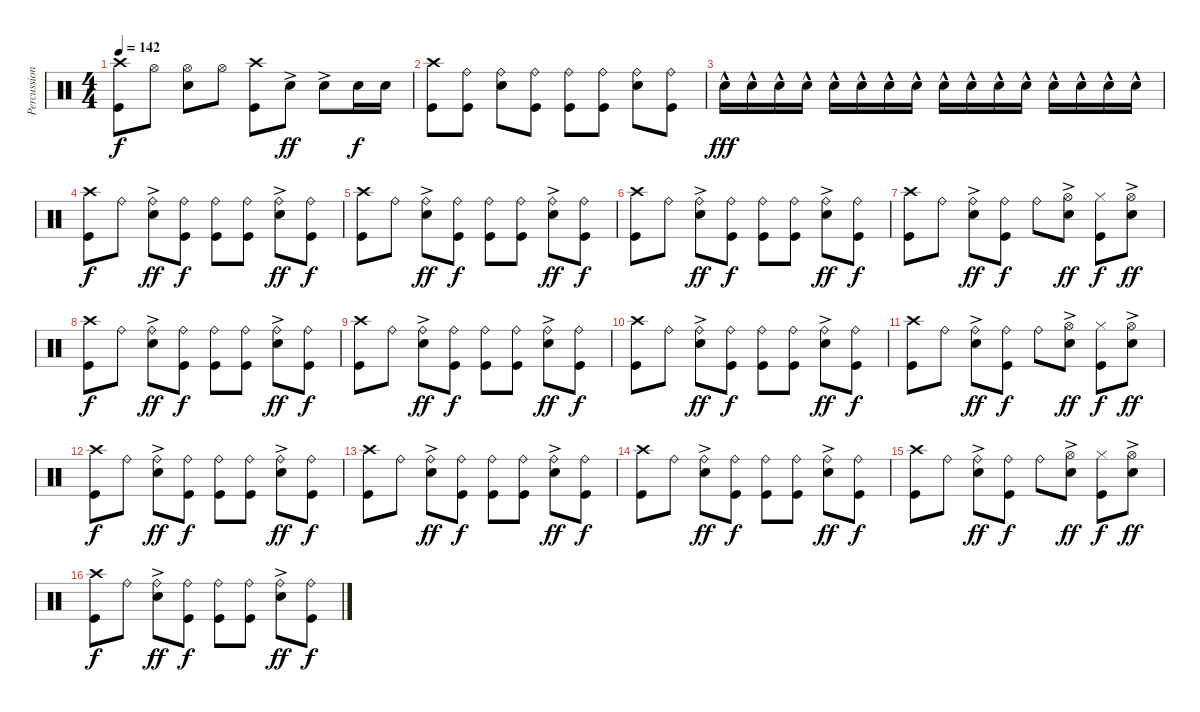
\track ("Percussion" "Percussion") {instrument percussion}
\staff {score}
\articulation defaults
\ts (4 4)
\tempo 142
\clef neutral
\ks c
("Crash high (hit)" "Kick (hit)").8{dy f} "Hi-Hat (open)".8 ("Hi-Hat (open)" "Electric Snare (hit)").8 "Hi-Hat (open)".8 ("Crash high (hit)" "Kick (hit)").8 "Electric Snare (hit)"{ac}.8{dy ff} "Electric Snare (hit)"{ac}.8 "Electric Snare (hit)".16{dy f} "Electric Snare (hit)".16 |
("Crash high (hit)" "Kick (hit)").8 ("Ride (bell)" "Kick (hit)").8 ("Ride (bell)" "Electric Snare (hit)").8 ("Ride (bell)" "Kick (hit)").8 ("Ride (bell)" "Kick (hit)").8 ("Ride (bell)" "Kick (hit)").8 ("Ride (bell)" "Electric Snare (hit)").8 ("Ride (bell)" "Kick (hit)").8 |
"Electric Snare (hit)"{hac}.16{dy fff} "Electric Snare (hit)"{hac}.16 "Electric Snare (hit)"{hac}.16 "Electric Snare (hit)"{hac}.16 "Electric Snare (hit)"{hac}.16 "Electric Snare (hit)"{hac}.16 "Electric Snare (hit)"{hac}.16 "Electric Snare (hit)"{hac}.16 "Electric Snare (hit)"{hac}.16 "Electric Snare (hit)"{hac}.16 "Electric Snare (hit)"{hac}.16 "Electric Snare (hit)"{hac}.16 "Electric Snare (hit)"{hac}.16 "Electric Snare (hit)"{hac}.16 "Electric Snare (hit)"{hac}.16 "Electric Snare (hit)"{hac}.16 |
("Crash high (hit)" "Kick (hit)").8{dy f} "Ride (bell)".8 ("Ride (bell)" "Electric Snare (hit)"{ac}).8{dy ff} ("Ride (bell)" "Kick (hit)").8{dy f} ("Ride (bell)" "Kick (hit)").8 ("Ride (bell)" "Kick (hit)").8 ("Ride (bell)" "Electric Snare (hit)"{ac}).8{dy ff} ("Ride (bell)" "Kick (hit)").8{dy f} |
("Crash high (hit)" "Kick (hit)").8 "Ride (bell)".8 ("Ride (bell)" "Electric Snare (hit)"{ac}).8{dy ff} ("Ride (bell)" "Kick (hit)").8{dy f} ("Ride (bell)" "Kick (hit)").8 ("Ride (bell)" "Kick (hit)").8 ("Ride (bell)" "Electric Snare (hit)"{ac}).8{dy ff} ("Ride (bell)" "Kick (hit)").8{dy f} |
("Crash high (hit)" "Kick (hit)").8 "Ride (bell)".8 ("Ride (bell)" "Electric Snare (hit)"{ac}).8{dy ff} ("Ride (bell)" "Kick (hit)").8{dy f} ("Ride (bell)" "Kick (hit)").8 ("Ride (bell)" "Kick (hit)").8 ("Ride (bell)" "Electric Snare (hit)"{ac}).8{dy ff} ("Ride (bell)" "Kick (hit)").8{dy f} |
("Crash high (hit)" "Kick (hit)").8 "Ride (bell)".8 ("Ride (bell)" "Electric Snare (hit)"{ac}).8{dy ff} ("Ride (bell)" "Kick (hit)").8{dy f} "Ride (bell)".8 ("Hi-Hat (open)" "Electric Snare (hit)"{ac}).8{dy ff} ("Hi-Hat (closed)" "Kick (hit)").8{dy f} ("Hi-Hat (open)" "Electric Snare (hit)"{ac}).8{dy ff} |
("Crash high (hit)" "Kick (hit)").8{dy f} "Ride (bell)".8 ("Ride (bell)" "Electric Snare (hit)"{ac}).8{dy ff} ("Ride (bell)" "Kick (hit)").8{dy f} ("Ride (bell)" "Kick (hit)").8 ("Ride (bell)" "Kick (hit)").8 ("Ride (bell)" "Electric Snare (hit)"{ac}).8{dy ff} ("Ride (bell)" "Kick (hit)").8{dy f} |
("Crash high (hit)" "Kick (hit)").8 "Ride (bell)".8 ("Ride (bell)" "Electric Snare (hit)"{ac}).8{dy ff} ("Ride (bell)" "Kick (hit)").8{dy f} ("Ride (bell)" "Kick (hit)").8 ("Ride (bell)" "Kick (hit)").8 ("Ride (bell)" "Electric Snare (hit)"{ac}).8{dy ff} ("Ride (bell)" "Kick (hit)").8{dy f} |
("Crash high (hit)" "Kick (hit)").8 "Ride (bell)".8 ("Ride (bell)" "Electric Snare (hit)"{ac}).8{dy ff} ("Ride (bell)" "Kick (hit)").8{dy f} ("Ride (bell)" "Kick (hit)").8 ("Ride (bell)" "Kick (hit)").8 ("Ride (bell)" "Electric Snare (hit)"{ac}).8{dy ff} ("Ride (bell)" "Kick (hit)").8{dy f} |
("Crash high (hit)" "Kick (hit)").8 "Ride (bell)".8 ("Ride (bell)" "Electric Snare (hit)"{ac}).8{dy ff} ("Ride (bell)" "Kick (hit)").8{dy f} "Ride (bell)".8 ("Hi-Hat (open)" "Electric Snare (hit)"{ac}).8{dy ff} ("Hi-Hat (closed)" "Kick (hit)").8{dy f} ("Hi-Hat (open)" "Electric Snare (hit)"{ac}).8{dy ff} |
("Crash high (hit)" "Kick (hit)").8{dy f} "Ride (bell)".8 ("Ride (bell)" "Electric Snare (hit)"{ac}).8{dy ff} ("Ride (bell)" "Kick (hit)").8{dy f} ("Ride (bell)" "Kick (hit)").8 ("Ride (bell)" "Kick (hit)").8 ("Ride (bell)" "Electric Snare (hit)"{ac}).8{dy ff} ("Ride (bell)" "Kick (hit)").8{dy f} |
("Crash high (hit)" "Kick (hit)").8 "Ride (bell)".8 ("Ride (bell)" "Electric Snare (hit)"{ac}).8{dy ff} ("Ride (bell)" "Kick (hit)").8{dy f} ("Ride (bell)" "Kick (hit)").8 ("Ride (bell)" "Kick (hit)").8 ("Ride (bell)" "Electric Snare (hit)"{ac}).8{dy ff} ("Ride (bell)" "Kick (hit)").8{dy f} |
("Crash high (hit)" "Kick (hit)").8 "Ride (bell)".8 ("Ride (bell)" "Electric Snare (hit)"{ac}).8{dy ff} ("Ride (bell)" "Kick (hit)").8{dy f} ("Ride (bell)" "Kick (hit)").8 ("Ride (bell)" "Kick (hit)").8 ("Ride (bell)" "Electric Snare (hit)"{ac}).8{dy ff} ("Ride (bell)" "Kick (hit)").8{dy f} |
("Crash high (hit)" "Kick (hit)").8 "Ride (bell)".8 ("Ride (bell)" "Electric Snare (hit)"{ac}).8{dy ff} ("Ride (bell)" "Kick (hit)").8{dy f} "Ride (bell)".8 ("Hi-Hat (open)" "Electric Snare (hit)"{ac}).8{dy ff} ("Hi-Hat (closed)" "Kick (hit)").8{dy f} ("Hi-Hat (open)" "Electric Snare (hit)"{ac}).8{dy ff} |
("Crash high (hit)" "Kick (hit)").8{dy f} "Ride (bell)".8 ("Ride (bell)" "Electric Snare (hit)"{ac}).8{dy ff} ("Ride (bell)" "Kick (hit)").8{dy f} ("Ride (bell)" "Kick (hit)").8 ("Ride (bell)" "Kick (hit)").8 ("Ride (bell)" "Electric Snare (hit)"{ac}).8{dy ff} ("Ride (bell)" "Kick (hit)").8{dy f}
